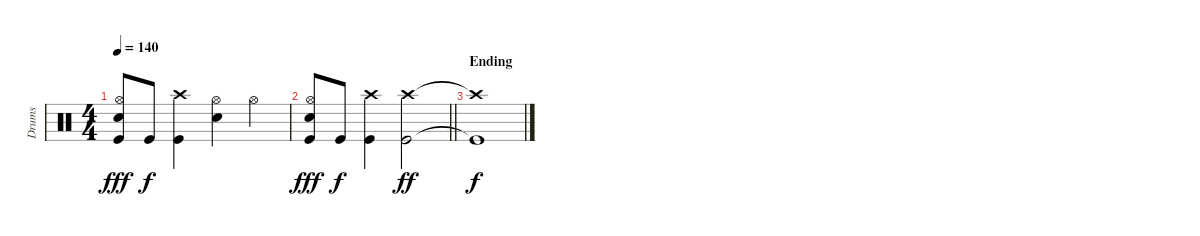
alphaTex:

\track ("Drums" "Drums") {instrument percussion}
\staff {score}
\articulation defaults
\ts (4 4)
\tempo 140
\clef neutral
\ks c
("Kick (hit)" "Hi-Hat (open)" "Snare (hit) 2").8{dy fff} "Kick (hit)".8{dy f} ("Kick (hit)" "Crash high (hit)").4 ("Snare (hit) 2" "Hi-Hat (open)").4 "Hi-Hat (open)".4 |
\barLineRight lightlight
("Kick (hit)" "Hi-Hat (open)" "Snare (hit) 2").8{dy fff} "Kick (hit)".8{dy f} ("Kick (hit)" "Crash high (hit)").4 ("Crash high (hit)" "Kick (hit)").2{dy ff} |
\section ("" "Ending")
("Crash high (hit)"{t} "Kick (hit)"{t}).1{dy f}
